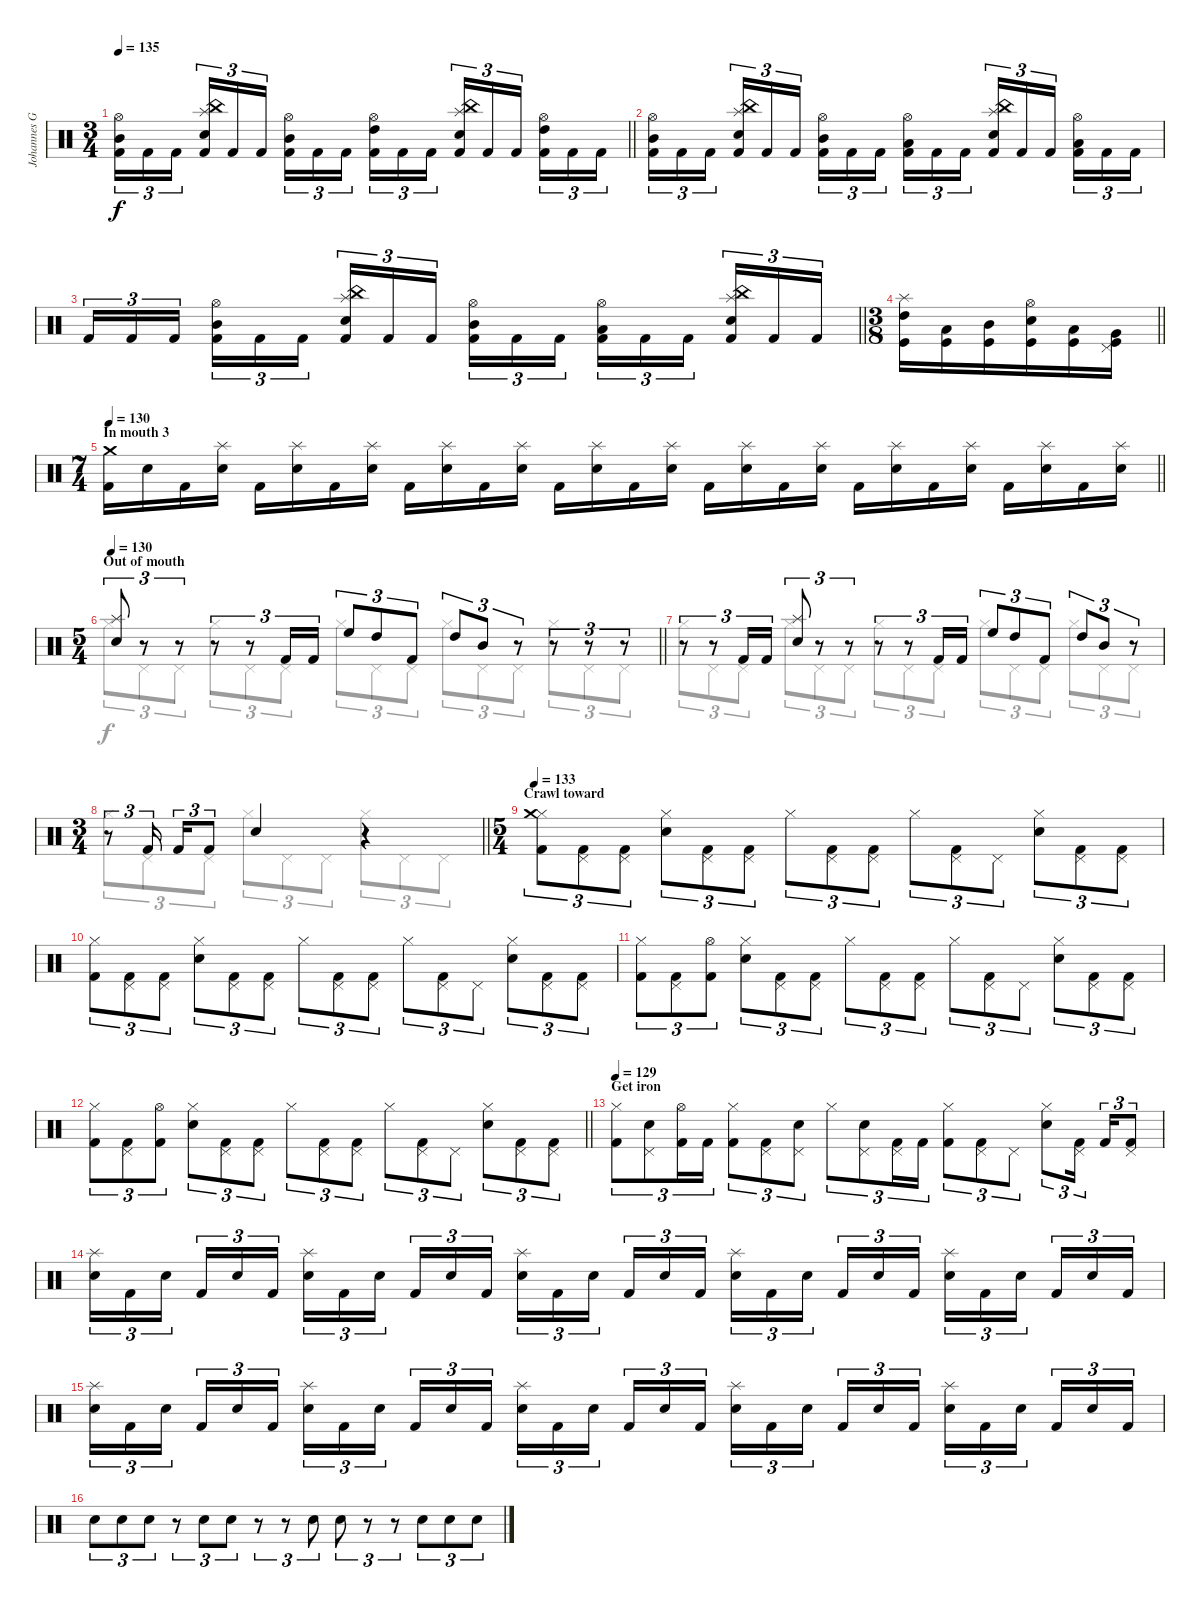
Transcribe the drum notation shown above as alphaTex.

\track ("Johannes Grossmann" "Johannes G") {instrument percussion}
\staff {score}
\articulation defaults
\voice
\ts (3 4)
\tempo 135
\clef neutral
\barLineRight lightlight
\ks c
("Hi-Hat (open)" "Mid Tom (hit)" "Kick (hit) 2").16{tu (3 2) dy f} "Kick (hit) 2".16{tu (3 2)} "Kick (hit) 2".16{tu (3 2) beam splitsecondary} ("China (hit)" "Splash (hit)" "Snare (hit) 2" "Kick (hit) 2").16{tu (3 2)} "Kick (hit) 2".16{tu (3 2)} "Kick (hit) 2".16{tu (3 2)} ("Hi-Hat (open)" "Mid Tom (hit)" "Kick (hit) 2").16{tu (3 2)} "Kick (hit) 2".16{tu (3 2)} "Kick (hit) 2".16{tu (3 2) beam splitsecondary} ("Hi-Hat (open)" "High Tom (hit)" "Kick (hit) 2").16{tu (3 2)} "Kick (hit) 2".16{tu (3 2)} "Kick (hit) 2".16{tu (3 2)} ("China (hit)" "Splash (hit)" "Snare (hit) 2" "Kick (hit) 2").16{tu (3 2)} "Kick (hit) 2".16{tu (3 2)} "Kick (hit) 2".16{tu (3 2) beam splitsecondary} ("Hi-Hat (open)" "High Tom (hit)" "Kick (hit) 2").16{tu (3 2)} "Kick (hit) 2".16{tu (3 2)} "Kick (hit) 2".16{tu (3 2)} |
("Hi-Hat (open)" "Mid Tom (hit)" "Kick (hit) 2").16{tu (3 2)} "Kick (hit) 2".16{tu (3 2)} "Kick (hit) 2".16{tu (3 2) beam splitsecondary} ("China (hit)" "Splash (hit)" "Snare (hit) 2" "Kick (hit) 2").16{tu (3 2)} "Kick (hit) 2".16{tu (3 2)} "Kick (hit) 2".16{tu (3 2)} ("Hi-Hat (open)" "Mid Tom (hit)" "Kick (hit) 2").16{tu (3 2)} "Kick (hit) 2".16{tu (3 2)} "Kick (hit) 2".16{tu (3 2) beam splitsecondary} ("Hi-Hat (open)" "Low Tom (hit)" "Kick (hit) 2").16{tu (3 2)} "Kick (hit) 2".16{tu (3 2)} "Kick (hit) 2".16{tu (3 2)} ("China (hit)" "Splash (hit)" "Snare (hit) 2" "Kick (hit) 2").16{tu (3 2)} "Kick (hit) 2".16{tu (3 2)} "Kick (hit) 2".16{tu (3 2) beam splitsecondary} ("Hi-Hat (open)" "Low Tom (hit)" "Kick (hit) 2").16{tu (3 2)} "Kick (hit) 2".16{tu (3 2)} "Kick (hit) 2".16{tu (3 2)} |
\barLineRight lightlight "Kick (hit) 2".16{tu (3 2)} "Kick (hit) 2".16{tu (3 2)} "Kick (hit) 2".16{tu (3 2) beam splitsecondary}
("Hi-Hat (open)" "Mid Tom (hit)" "Kick (hit) 2").16{tu (3 2)} "Kick (hit) 2".16{tu (3 2)} "Kick (hit) 2".16{tu (3 2)} ("China (hit)" "Splash (hit)" "Snare (hit) 2" "Kick (hit) 2").16{tu (3 2)} "Kick (hit) 2".16{tu (3 2)} "Kick (hit) 2".16{tu (3 2) beam splitsecondary} ("Hi-Hat (open)" "Mid Tom (hit)" "Kick (hit) 2").16{tu (3 2)} "Kick (hit) 2".16{tu (3 2)} "Kick (hit) 2".16{tu (3 2)} ("Hi-Hat (open)" "Low Tom (hit)" "Kick (hit) 2").16{tu (3 2)} "Kick (hit) 2".16{tu (3 2)} "Kick (hit) 2".16{tu (3 2) beam splitsecondary} ("China (hit)" "Splash (hit)" "Snare (hit) 2" "Kick (hit) 2").16{tu (3 2)} "Kick (hit) 2".16{tu (3 2)} "Kick (hit) 2".16{tu (3 2)} |
\ts (3 8)
\barLineRight lightlight
("Splash (hit)" "High Tom (hit)" "Kick (hit)").16 ("Low Tom (hit)" "Kick (hit)").16 ("Mid Tom (hit)" "Kick (hit)").16 ("Hi-Hat (open)" "Snare (hit) 2" "Kick (hit)").16 ("Low Tom (hit)" "Kick (hit)").16 ("Pedal Hi-Hat (hit)" "Very Low Tom (hit)" "Kick (hit)").16 |
\ts (7 4)
\section ("" "In mouth 3")
\tempo 130
\barLineRight lightlight
("Crash medium (hit)" "Kick (hit) 2").16 "Snare (hit) 2".16 "Kick (hit) 2".16 ("Splash (hit)" "Snare (hit) 2").16 "Kick (hit) 2".16 ("Splash (hit)" "Snare (hit) 2").16 "Kick (hit) 2".16 ("Splash (hit)" "Snare (hit) 2").16 "Kick (hit) 2".16 ("Splash (hit)" "Snare (hit) 2").16 "Kick (hit) 2".16 ("Splash (hit)" "Snare (hit) 2").16 "Kick (hit) 2".16 ("Splash (hit)" "Snare (hit) 2").16 "Kick (hit) 2".16 ("Splash (hit)" "Snare (hit) 2").16 "Kick (hit) 2".16 ("Splash (hit)" "Snare (hit) 2").16 "Kick (hit) 2".16 ("Splash (hit)" "Snare (hit) 2").16 "Kick (hit) 2".16 ("Splash (hit)" "Snare (hit) 2").16 "Kick (hit) 2".16 ("Splash (hit)" "Snare (hit) 2").16 "Kick (hit) 2".16 ("Splash (hit)" "Snare (hit) 2").16 "Kick (hit) 2".16 ("Splash (hit)" "Snare (hit) 2").16 |
\ts (5 4)
\section ("" "Out of mouth")
\tempo 130
\barLineRight lightlight
("Splash (hit)" "Snare (hit) 2").8{tu (3 2)} r.8{tu (3 2)} r.8{tu (3 2)} r.8{tu (3 2)} r.8{tu (3 2)} "Kick (hit) 2".16{tu (3 2)} "Kick (hit) 2".16{tu (3 2)} "High Floor Tom (hit)".8{tu (3 2)} "High Tom (hit)".8{tu (3 2)} "Kick (hit) 2".8{tu (3 2)} "High Tom (hit)".8{tu (3 2)} "Mid Tom (hit)".8{tu (3 2)} r.8{tu (3 2)} r.8{tu (3 2)} r.8{tu (3 2)} r.8{tu (3 2)} |
r.8{tu (3 2)} r.8{tu (3 2)} "Kick (hit) 2".16{tu (3 2)} "Kick (hit) 2".16{tu (3 2)} ("Splash (hit)" "Snare (hit) 2").8{tu (3 2)} r.8{tu (3 2)} r.8{tu (3 2)} r.8{tu (3 2)} r.8{tu (3 2)} "Kick (hit) 2".16{tu (3 2)} "Kick (hit) 2".16{tu (3 2)} "High Floor Tom (hit)".8{tu (3 2)} "High Tom (hit)".8{tu (3 2)} "Kick (hit) 2".8{tu (3 2)} "High Tom (hit)".8{tu (3 2)} "Mid Tom (hit)".8{tu (3 2)} r.8{tu (3 2)} |
\ts (3 4)
\barLineRight lightlight
r.8{tu (3 2)} "Kick (hit) 2".16{tu (3 2) beam splitsecondary} "Kick (hit) 2".16{tu (3 2)} "Kick (hit) 2".8{tu (3 2)} "Snare (hit) 2".4 r.4 |
\ts (5 4)
\section ("" "Crawl toward")
\tempo 133
("Hi-Hat (closed)" "Crash medium (hit)" "Kick (hit) 2").8{tu (3 2)} ("Pedal Hi-Hat (hit)" "Kick (hit) 2").8{tu (3 2)} ("Pedal Hi-Hat (hit)" "Kick (hit) 2").8{tu (3 2)} ("Hi-Hat (closed)" "Snare (hit) 2").8{tu (3 2)} ("Pedal Hi-Hat (hit)" "Kick (hit) 2").8{tu (3 2)} ("Pedal Hi-Hat (hit)" "Kick (hit) 2").8{tu (3 2)} "Hi-Hat (closed)".8{tu (3 2)} ("Pedal Hi-Hat (hit)" "Kick (hit) 2").8{tu (3 2)} ("Pedal Hi-Hat (hit)" "Kick (hit) 2").8{tu (3 2)} "Hi-Hat (closed)".8{tu (3 2)} ("Pedal Hi-Hat (hit)" "Kick (hit) 2").8{tu (3 2)} "Pedal Hi-Hat (hit)".8{tu (3 2)} ("Hi-Hat (closed)" "Snare (hit) 2").8{tu (3 2)} ("Pedal Hi-Hat (hit)" "Kick (hit) 2").8{tu (3 2)} ("Pedal Hi-Hat (hit)" "Kick (hit) 2").8{tu (3 2)} |
("Hi-Hat (closed)" "Kick (hit) 2").8{tu (3 2)} ("Pedal Hi-Hat (hit)" "Kick (hit) 2").8{tu (3 2)} ("Pedal Hi-Hat (hit)" "Kick (hit) 2").8{tu (3 2)} ("Hi-Hat (closed)" "Snare (hit) 2").8{tu (3 2)} ("Pedal Hi-Hat (hit)" "Kick (hit) 2").8{tu (3 2)} ("Pedal Hi-Hat (hit)" "Kick (hit) 2").8{tu (3 2)} "Hi-Hat (closed)".8{tu (3 2)} ("Pedal Hi-Hat (hit)" "Kick (hit) 2").8{tu (3 2)} ("Pedal Hi-Hat (hit)" "Kick (hit) 2").8{tu (3 2)} "Hi-Hat (closed)".8{tu (3 2)} ("Pedal Hi-Hat (hit)" "Kick (hit) 2").8{tu (3 2)} "Pedal Hi-Hat (hit)".8{tu (3 2)} ("Hi-Hat (closed)" "Snare (hit) 2").8{tu (3 2)} ("Pedal Hi-Hat (hit)" "Kick (hit) 2").8{tu (3 2)} ("Pedal Hi-Hat (hit)" "Kick (hit) 2").8{tu (3 2)} |
("Hi-Hat (closed)" "Kick (hit) 2").8{tu (3 2)} ("Pedal Hi-Hat (hit)" "Kick (hit) 2").8{tu (3 2)} ("Hi-Hat (open)" "Kick (hit) 2").8{tu (3 2)} ("Hi-Hat (closed)" "Snare (hit) 2").8{tu (3 2)} ("Pedal Hi-Hat (hit)" "Kick (hit) 2").8{tu (3 2)} ("Pedal Hi-Hat (hit)" "Kick (hit) 2").8{tu (3 2)} "Hi-Hat (closed)".8{tu (3 2)} ("Pedal Hi-Hat (hit)" "Kick (hit) 2").8{tu (3 2)} ("Pedal Hi-Hat (hit)" "Kick (hit) 2").8{tu (3 2)} "Hi-Hat (closed)".8{tu (3 2)} ("Pedal Hi-Hat (hit)" "Kick (hit) 2").8{tu (3 2)} "Pedal Hi-Hat (hit)".8{tu (3 2)} ("Hi-Hat (closed)" "Snare (hit) 2").8{tu (3 2)} ("Pedal Hi-Hat (hit)" "Kick (hit) 2").8{tu (3 2)} ("Pedal Hi-Hat (hit)" "Kick (hit) 2").8{tu (3 2)} |
\barLineRight lightlight
("Hi-Hat (closed)" "Kick (hit) 2").8{tu (3 2)} ("Pedal Hi-Hat (hit)" "Kick (hit) 2").8{tu (3 2)} ("Hi-Hat (open)" "Kick (hit) 2").8{tu (3 2)} ("Hi-Hat (closed)" "Snare (hit) 2").8{tu (3 2)} ("Pedal Hi-Hat (hit)" "Kick (hit) 2").8{tu (3 2)} ("Pedal Hi-Hat (hit)" "Kick (hit) 2").8{tu (3 2)} "Hi-Hat (closed)".8{tu (3 2)} ("Pedal Hi-Hat (hit)" "Kick (hit) 2").8{tu (3 2)} ("Pedal Hi-Hat (hit)" "Kick (hit) 2").8{tu (3 2)} "Hi-Hat (closed)".8{tu (3 2)} ("Pedal Hi-Hat (hit)" "Kick (hit) 2").8{tu (3 2)} "Pedal Hi-Hat (hit)".8{tu (3 2)} ("Hi-Hat (closed)" "Snare (hit) 2").8{tu (3 2)} ("Pedal Hi-Hat (hit)" "Kick (hit) 2").8{tu (3 2)} ("Pedal Hi-Hat (hit)" "Kick (hit) 2").8{tu (3 2)} |
\section ("" "Get iron")
\tempo 129
("Hi-Hat (closed)" "Kick (hit) 2").8{tu (3 2)} ("Pedal Hi-Hat (hit)" "Snare (hit) 2").8{tu (3 2)} ("Hi-Hat (open)" "Kick (hit) 2").16{tu (3 2)} "Kick (hit) 2".16{tu (3 2)} ("Hi-Hat (closed)" "Kick (hit) 2").8{tu (3 2)} ("Pedal Hi-Hat (hit)" "Kick (hit) 2").8{tu (3 2)} ("Pedal Hi-Hat (hit)" "Snare (hit) 2").8{tu (3 2)} "Hi-Hat (closed)".8{tu (3 2)} ("Pedal Hi-Hat (hit)" "Snare (hit) 2").8{tu (3 2)} ("Pedal Hi-Hat (hit)" "Kick (hit) 2").16{tu (3 2)} "Kick (hit) 2".16{tu (3 2)} ("Hi-Hat (closed)" "Kick (hit) 2").8{tu (3 2)} ("Pedal Hi-Hat (hit)" "Kick (hit) 2").8{tu (3 2)} "Pedal Hi-Hat (hit)".8{tu (3 2)} ("Hi-Hat (closed)" "Snare (hit) 2").8{tu (3 2)} ("Pedal Hi-Hat (hit)" "Kick (hit) 2").16{tu (3 2) beam splitsecondary} "Kick (hit) 2".16{tu (3 2)} ("Pedal Hi-Hat (hit)" "Kick (hit) 2").8{tu (3 2)} |
("Splash (hit)" "Snare (hit) 2").16{tu (3 2)} "Kick (hit) 2".16{tu (3 2)} "Snare (hit) 2".16{tu (3 2) beam splitsecondary} "Kick (hit) 2".16{tu (3 2)} "Snare (hit) 2".16{tu (3 2)} "Kick (hit) 2".16{tu (3 2)} ("Splash (hit)" "Snare (hit) 2").16{tu (3 2)} "Kick (hit) 2".16{tu (3 2)} "Snare (hit) 2".16{tu (3 2) beam splitsecondary} "Kick (hit) 2".16{tu (3 2)} "Snare (hit) 2".16{tu (3 2)} "Kick (hit) 2".16{tu (3 2)} ("Splash (hit)" "Snare (hit) 2").16{tu (3 2)} "Kick (hit) 2".16{tu (3 2)} "Snare (hit) 2".16{tu (3 2) beam splitsecondary} "Kick (hit) 2".16{tu (3 2)} "Snare (hit) 2".16{tu (3 2)} "Kick (hit) 2".16{tu (3 2)} ("Splash (hit)" "Snare (hit) 2").16{tu (3 2)} "Kick (hit) 2".16{tu (3 2)} "Snare (hit) 2".16{tu (3 2) beam splitsecondary} "Kick (hit) 2".16{tu (3 2)} "Snare (hit) 2".16{tu (3 2)} "Kick (hit) 2".16{tu (3 2)} ("Splash (hit)" "Snare (hit) 2").16{tu (3 2)} "Kick (hit) 2".16{tu (3 2)} "Snare (hit) 2".16{tu (3 2) beam splitsecondary} "Kick (hit) 2".16{tu (3 2)} "Snare (hit) 2".16{tu (3 2)} "Kick (hit) 2".16{tu (3 2)} |
("Splash (hit)" "Snare (hit) 2").16{tu (3 2)} "Kick (hit) 2".16{tu (3 2)} "Snare (hit) 2".16{tu (3 2) beam splitsecondary} "Kick (hit) 2".16{tu (3 2)} "Snare (hit) 2".16{tu (3 2)} "Kick (hit) 2".16{tu (3 2)} ("Splash (hit)" "Snare (hit) 2").16{tu (3 2)} "Kick (hit) 2".16{tu (3 2)} "Snare (hit) 2".16{tu (3 2) beam splitsecondary} "Kick (hit) 2".16{tu (3 2)} "Snare (hit) 2".16{tu (3 2)} "Kick (hit) 2".16{tu (3 2)} ("Splash (hit)" "Snare (hit) 2").16{tu (3 2)} "Kick (hit) 2".16{tu (3 2)} "Snare (hit) 2".16{tu (3 2) beam splitsecondary} "Kick (hit) 2".16{tu (3 2)} "Snare (hit) 2".16{tu (3 2)} "Kick (hit) 2".16{tu (3 2)} ("Splash (hit)" "Snare (hit) 2").16{tu (3 2)} "Kick (hit) 2".16{tu (3 2)} "Snare (hit) 2".16{tu (3 2) beam splitsecondary} "Kick (hit) 2".16{tu (3 2)} "Snare (hit) 2".16{tu (3 2)} "Kick (hit) 2".16{tu (3 2)} ("Splash (hit)" "Snare (hit) 2").16{tu (3 2)} "Kick (hit) 2".16{tu (3 2)} "Snare (hit) 2".16{tu (3 2) beam splitsecondary} "Kick (hit) 2".16{tu (3 2)} "Snare (hit) 2".16{tu (3 2)} "Kick (hit) 2".16{tu (3 2)} |
"Snare (hit) 2".8{tu (3 2)} "Snare (hit) 2".8{tu (3 2)} "Snare (hit) 2".8{tu (3 2)} r.8{tu (3 2)} "Snare (hit) 2".8{tu (3 2)} "Snare (hit) 2".8{tu (3 2)} r.8{tu (3 2)} r.8{tu (3 2)} "Snare (hit) 2".8{tu (3 2)} "Snare (hit) 2".8{tu (3 2)} r.8{tu (3 2)} r.8{tu (3 2)} "Snare (hit) 2".8{tu (3 2)} "Snare (hit) 2".8{tu (3 2)} "Snare (hit) 2".8{tu (3 2)}
\voice
\clef neutral
\ottava regular
\simile none
\barLineRight lightlight
\ks c
|
|
\barLineRight lightlight
|
\barLineRight lightlight
|
\barLineRight lightlight
|
\barLineRight lightlight "Hi-Hat (closed)".8{tu (3 2)} "Pedal Hi-Hat (hit)".8{tu (3 2)} "Pedal Hi-Hat (hit)".8{tu (3 2)} "Hi-Hat (closed)".8{tu (3 2)} "Pedal Hi-Hat (hit)".8{tu (3 2)} "Pedal Hi-Hat (hit)".8{tu (3 2)} "Hi-Hat (closed)".8{tu (3 2)} "Pedal Hi-Hat (hit)".8{tu (3 2)} "Pedal Hi-Hat (hit)".8{tu (3 2)} "Hi-Hat (closed)".8{tu (3 2)} "Pedal Hi-Hat (hit)".8{tu (3 2)} "Pedal Hi-Hat (hit)".8{tu (3 2)} "Hi-Hat (closed)".8{tu (3 2)} "Pedal Hi-Hat (hit)".8{tu (3 2)} "Pedal Hi-Hat (hit)".8{tu (3 2)}
|
"Hi-Hat (closed)".8{tu (3 2)} "Pedal Hi-Hat (hit)".8{tu (3 2)} "Pedal Hi-Hat (hit)".8{tu (3 2)} "Hi-Hat (closed)".8{tu (3 2)} "Pedal Hi-Hat (hit)".8{tu (3 2)} "Pedal Hi-Hat (hit)".8{tu (3 2)} "Hi-Hat (closed)".8{tu (3 2)} "Pedal Hi-Hat (hit)".8{tu (3 2)} "Pedal Hi-Hat (hit)".8{tu (3 2)} "Hi-Hat (closed)".8{tu (3 2)} "Pedal Hi-Hat (hit)".8{tu (3 2)} "Pedal Hi-Hat (hit)".8{tu (3 2)} "Hi-Hat (closed)".8{tu (3 2)} "Pedal Hi-Hat (hit)".8{tu (3 2)} "Pedal Hi-Hat (hit)".8{tu (3 2)} |
\barLineRight lightlight "Hi-Hat (closed)".8{tu (3 2)} "Pedal Hi-Hat (hit)".8{tu (3 2)} "Pedal Hi-Hat (hit)".8{tu (3 2)} "Hi-Hat (closed)".8{tu (3 2)} "Pedal Hi-Hat (hit)".8{tu (3 2)} "Pedal Hi-Hat (hit)".8{tu (3 2)} "Hi-Hat (closed)".8{tu (3 2)} "Pedal Hi-Hat (hit)".8{tu (3 2)} "Pedal Hi-Hat (hit)".8{tu (3 2)}
|
|
|
|
\barLineRight lightlight
|
|
|
|
